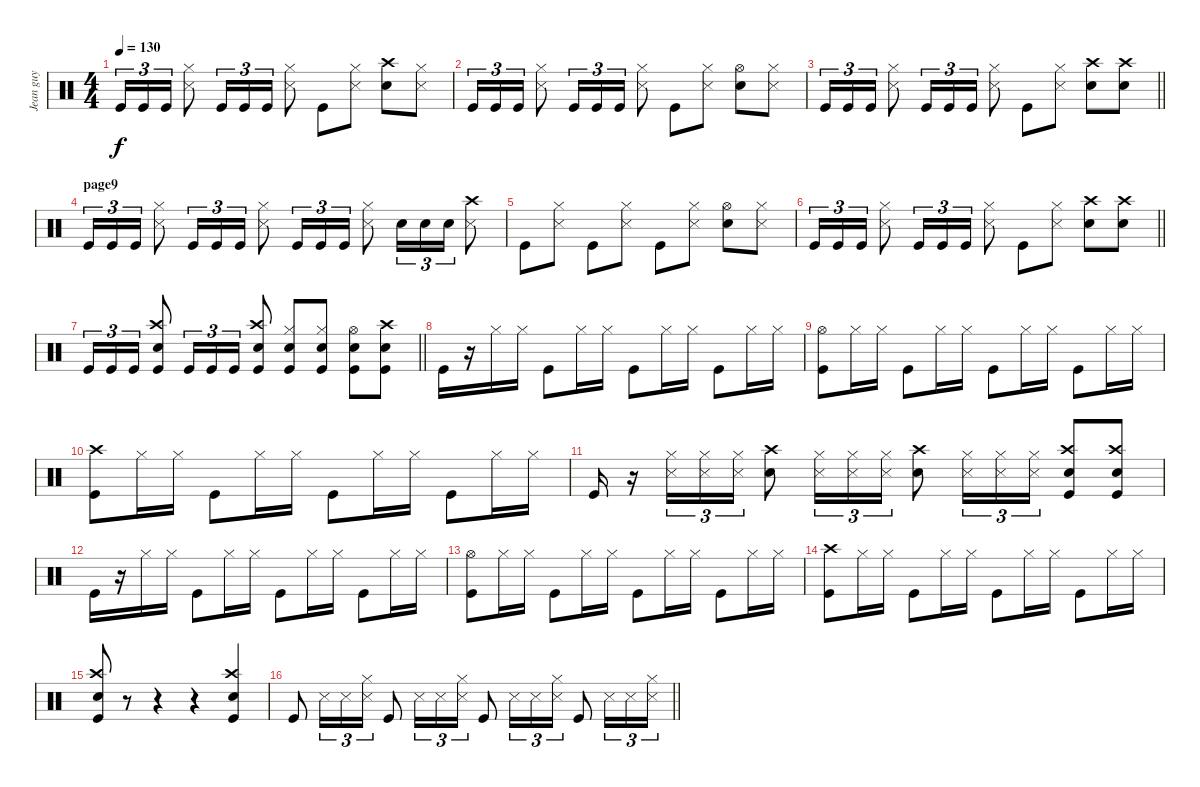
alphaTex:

\track ("Jean guy" "Jean guy") {instrument percussion}
\staff {score}
\articulation defaults
\ts (4 4)
\tempo 130
\clef neutral
\ks c "Kick (hit)".16{tu (3 2) dy f} "Kick (hit)".16{tu (3 2)} "Kick (hit)".16{tu (3 2)}
("Hi-Hat (closed)" "Snare (side stick) 3").8 "Kick (hit)".16{tu (3 2)} "Kick (hit)".16{tu (3 2)} "Kick (hit)".16{tu (3 2)} ("Hi-Hat (closed)" "Snare (side stick) 3").8 "Kick (hit)".8 ("Hi-Hat (closed)" "Snare (side stick) 3").8 ("Crash high (hit)" "Electric Snare (hit)").8 ("Hi-Hat (closed)" "Snare (side stick) 3").8 |
"Kick (hit)".16{tu (3 2)} "Kick (hit)".16{tu (3 2)} "Kick (hit)".16{tu (3 2)} ("Hi-Hat (closed)" "Snare (side stick) 3").8 "Kick (hit)".16{tu (3 2)} "Kick (hit)".16{tu (3 2)} "Kick (hit)".16{tu (3 2)} ("Hi-Hat (closed)" "Snare (side stick) 3").8 "Kick (hit)".8 ("Hi-Hat (closed)" "Snare (side stick) 3").8 ("Hi-Hat (open)" "Electric Snare (hit)").8 ("Hi-Hat (closed)" "Snare (side stick) 3").8 |
\barLineRight lightlight "Kick (hit)".16{tu (3 2)} "Kick (hit)".16{tu (3 2)} "Kick (hit)".16{tu (3 2)}
("Hi-Hat (closed)" "Snare (side stick) 3").8 "Kick (hit)".16{tu (3 2)} "Kick (hit)".16{tu (3 2)} "Kick (hit)".16{tu (3 2)} ("Hi-Hat (closed)" "Snare (side stick) 3").8 "Kick (hit)".8 ("Hi-Hat (closed)" "Snare (side stick) 3").8 ("Crash high (hit)" "Electric Snare (hit)").8 ("Crash high (hit)" "Electric Snare (hit)").8 |
\section ("" "page9")
"Kick (hit)".16{tu (3 2)} "Kick (hit)".16{tu (3 2)} "Kick (hit)".16{tu (3 2)} ("Hi-Hat (closed)" "Snare (side stick) 3").8 "Kick (hit)".16{tu (3 2)} "Kick (hit)".16{tu (3 2)} "Kick (hit)".16{tu (3 2)} ("Hi-Hat (closed)" "Snare (side stick) 3").8 "Kick (hit)".16{tu (3 2)} "Kick (hit)".16{tu (3 2)} "Kick (hit)".16{tu (3 2)} ("Hi-Hat (closed)" "Snare (side stick) 3").8 "Electric Snare (hit)".16{tu (3 2)} "Electric Snare (hit)".16{tu (3 2)} "Electric Snare (hit)".16{tu (3 2)} ("Crash high (hit)" "Snare (side stick) 3").8 |
"Kick (hit)".8 ("Hi-Hat (closed)" "Snare (side stick) 3").8 "Kick (hit)".8 ("Hi-Hat (closed)" "Snare (side stick) 3").8 "Kick (hit)".8 ("Hi-Hat (closed)" "Snare (side stick) 3").8 ("Hi-Hat (open)" "Electric Snare (hit)").8 ("Hi-Hat (closed)" "Snare (side stick) 3").8 |
\barLineRight lightlight "Kick (hit)".16{tu (3 2)} "Kick (hit)".16{tu (3 2)} "Kick (hit)".16{tu (3 2)}
("Hi-Hat (closed)" "Snare (side stick) 3").8 "Kick (hit)".16{tu (3 2)} "Kick (hit)".16{tu (3 2)} "Kick (hit)".16{tu (3 2)} ("Hi-Hat (closed)" "Snare (side stick) 3").8 "Kick (hit)".8 ("Hi-Hat (closed)" "Snare (side stick) 3").8 ("Crash high (hit)" "Electric Snare (hit)").8 ("Crash high (hit)" "Electric Snare (hit)").8 |
\barLineRight lightlight "Kick (hit)".16{tu (3 2)} "Kick (hit)".16{tu (3 2)} "Kick (hit)".16{tu (3 2)}
("Crash high (hit)" "Electric Snare (hit)" "Kick (hit)").8 "Kick (hit)".16{tu (3 2)} "Kick (hit)".16{tu (3 2)} "Kick (hit)".16{tu (3 2)} ("Crash high (hit)" "Electric Snare (hit)" "Kick (hit)").8 ("Hi-Hat (closed)" "Kick (hit)" "Electric Snare (hit)").8 ("Hi-Hat (closed)" "Kick (hit)" "Electric Snare (hit)").8 ("Hi-Hat (open)" "Kick (hit)" "Electric Snare (hit)").8 ("Crash high (hit)" "Kick (hit)" "Electric Snare (hit)").8 |
"Kick (hit)".16 r.16 "Hi-Hat (closed)".16 "Hi-Hat (closed)".16 "Kick (hit)".8 "Hi-Hat (closed)".16 "Hi-Hat (closed)".16 "Kick (hit)".8 "Hi-Hat (closed)".16 "Hi-Hat (closed)".16 "Kick (hit)".8 "Hi-Hat (closed)".16 "Hi-Hat (closed)".16 |
("Hi-Hat (open)" "Kick (hit)").8 "Hi-Hat (closed)".16 "Hi-Hat (closed)".16 "Kick (hit)".8 "Hi-Hat (closed)".16 "Hi-Hat (closed)".16 "Kick (hit)".8 "Hi-Hat (closed)".16 "Hi-Hat (closed)".16 "Kick (hit)".8 "Hi-Hat (closed)".16 "Hi-Hat (closed)".16 |
("Crash high (hit)" "Kick (hit)").8 "Hi-Hat (closed)".16 "Hi-Hat (closed)".16 "Kick (hit)".8 "Hi-Hat (closed)".16 "Hi-Hat (closed)".16 "Kick (hit)".8 "Hi-Hat (closed)".16 "Hi-Hat (closed)".16 "Kick (hit)".8 "Hi-Hat (closed)".16 "Hi-Hat (closed)".16 |
"Kick (hit)".16 r.16 ("Hi-Hat (closed)" "Snare (side stick) 3").16{tu (3 2)} ("Hi-Hat (closed)" "Snare (side stick) 3").16{tu (3 2)} ("Hi-Hat (closed)" "Snare (side stick) 3").16{tu (3 2)} ("Crash high (hit)" "Electric Snare (hit)").8 ("Hi-Hat (closed)" "Snare (side stick) 3").16{tu (3 2)} ("Hi-Hat (closed)" "Snare (side stick) 3").16{tu (3 2)} ("Hi-Hat (closed)" "Snare (side stick) 3").16{tu (3 2)} ("Crash high (hit)" "Electric Snare (hit)").8 ("Hi-Hat (closed)" "Snare (side stick) 3").16{tu (3 2)} ("Hi-Hat (closed)" "Snare (side stick) 3").16{tu (3 2)} ("Hi-Hat (closed)" "Snare (side stick) 3").16{tu (3 2)} ("Kick (hit)" "Crash high (hit)" "Electric Snare (hit)").8 ("Kick (hit)" "Crash high (hit)" "Electric Snare (hit)").8 |
"Kick (hit)".16 r.16 "Hi-Hat (closed)".16 "Hi-Hat (closed)".16 "Kick (hit)".8 "Hi-Hat (closed)".16 "Hi-Hat (closed)".16 "Kick (hit)".8 "Hi-Hat (closed)".16 "Hi-Hat (closed)".16 "Kick (hit)".8 "Hi-Hat (closed)".16 "Hi-Hat (closed)".16 |
("Hi-Hat (open)" "Kick (hit)").8 "Hi-Hat (closed)".16 "Hi-Hat (closed)".16 "Kick (hit)".8 "Hi-Hat (closed)".16 "Hi-Hat (closed)".16 "Kick (hit)".8 "Hi-Hat (closed)".16 "Hi-Hat (closed)".16 "Kick (hit)".8 "Hi-Hat (closed)".16 "Hi-Hat (closed)".16 |
("Crash high (hit)" "Kick (hit)").8 "Hi-Hat (closed)".16 "Hi-Hat (closed)".16 "Kick (hit)".8 "Hi-Hat (closed)".16 "Hi-Hat (closed)".16 "Kick (hit)".8 "Hi-Hat (closed)".16 "Hi-Hat (closed)".16 "Kick (hit)".8 "Hi-Hat (closed)".16 "Hi-Hat (closed)".16 |
("Electric Snare (hit)" "Kick (hit)" "Crash high (hit)").8 r.8 r.4 r.4 ("Electric Snare (hit)" "Crash high (hit)" "Kick (hit)").4 |
\barLineRight lightlight "Kick (hit)".8 "Snare (side stick) 3".16{tu (3 2)} "Snare (side stick) 3".16{tu (3 2)}
("Hi-Hat (closed)" "Snare (side stick) 3").16{tu (3 2)} "Kick (hit)".8 "Snare (side stick) 3".16{tu (3 2)} "Snare (side stick) 3".16{tu (3 2)} ("Hi-Hat (closed)" "Snare (side stick) 3").16{tu (3 2)} "Kick (hit)".8 "Snare (side stick) 3".16{tu (3 2)} "Snare (side stick) 3".16{tu (3 2)} ("Hi-Hat (closed)" "Snare (side stick) 3").16{tu (3 2)} "Kick (hit)".8 "Snare (side stick) 3".16{tu (3 2)} "Snare (side stick) 3".16{tu (3 2)} ("Hi-Hat (closed)" "Snare (side stick) 3").16{tu (3 2)}
